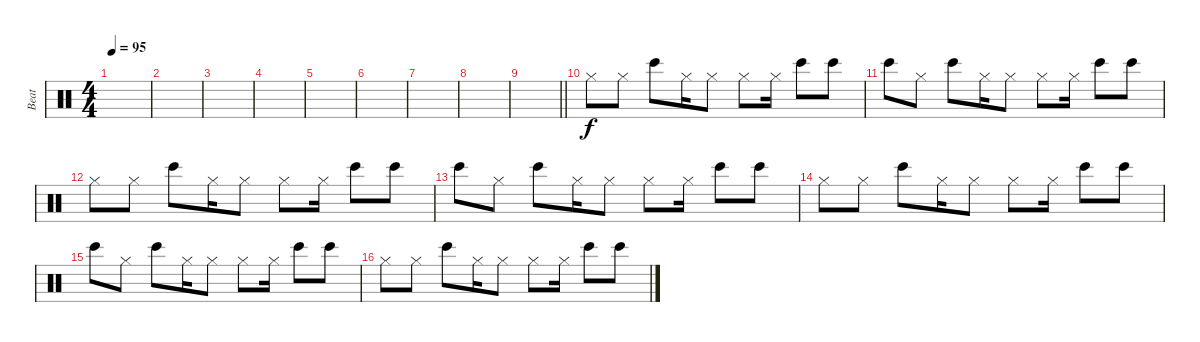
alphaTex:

\track ("Beat" "Beat") {instrument percussion}
\staff {score}
\articulation defaults
\ts (4 4)
\tempo 95
\clef neutral
\ks c
|
|
|
|
|
|
|
|
\barLineRight lightlight
|
"Hi-Hat (closed)".8 "Hi-Hat (closed)".8 "Bongo High (hit)".8 "Hi-Hat (closed)".16 "Hi-Hat (closed)".8 "Hi-Hat (closed)".8 "Hi-Hat (closed)".16 "Bongo High (hit)".8 "Bongo High (hit)".8 |
"Bongo High (hit)".8 "Hi-Hat (closed)".8 "Bongo High (hit)".8 "Hi-Hat (closed)".16 "Hi-Hat (closed)".8 "Hi-Hat (closed)".8 "Hi-Hat (closed)".16 "Bongo High (hit)".8 "Bongo High (hit)".8 |
"Hi-Hat (closed)".8 "Hi-Hat (closed)".8 "Bongo High (hit)".8 "Hi-Hat (closed)".16 "Hi-Hat (closed)".8 "Hi-Hat (closed)".8 "Hi-Hat (closed)".16 "Bongo High (hit)".8 "Bongo High (hit)".8 |
"Bongo High (hit)".8 "Hi-Hat (closed)".8 "Bongo High (hit)".8 "Hi-Hat (closed)".16 "Hi-Hat (closed)".8 "Hi-Hat (closed)".8 "Hi-Hat (closed)".16 "Bongo High (hit)".8 "Bongo High (hit)".8 |
"Hi-Hat (closed)".8 "Hi-Hat (closed)".8 "Bongo High (hit)".8 "Hi-Hat (closed)".16 "Hi-Hat (closed)".8 "Hi-Hat (closed)".8 "Hi-Hat (closed)".16 "Bongo High (hit)".8 "Bongo High (hit)".8 |
"Bongo High (hit)".8 "Hi-Hat (closed)".8 "Bongo High (hit)".8 "Hi-Hat (closed)".16 "Hi-Hat (closed)".8 "Hi-Hat (closed)".8 "Hi-Hat (closed)".16 "Bongo High (hit)".8 "Bongo High (hit)".8 |
"Hi-Hat (closed)".8 "Hi-Hat (closed)".8 "Bongo High (hit)".8 "Hi-Hat (closed)".16 "Hi-Hat (closed)".8 "Hi-Hat (closed)".8 "Hi-Hat (closed)".16 "Bongo High (hit)".8 "Bongo High (hit)".8
